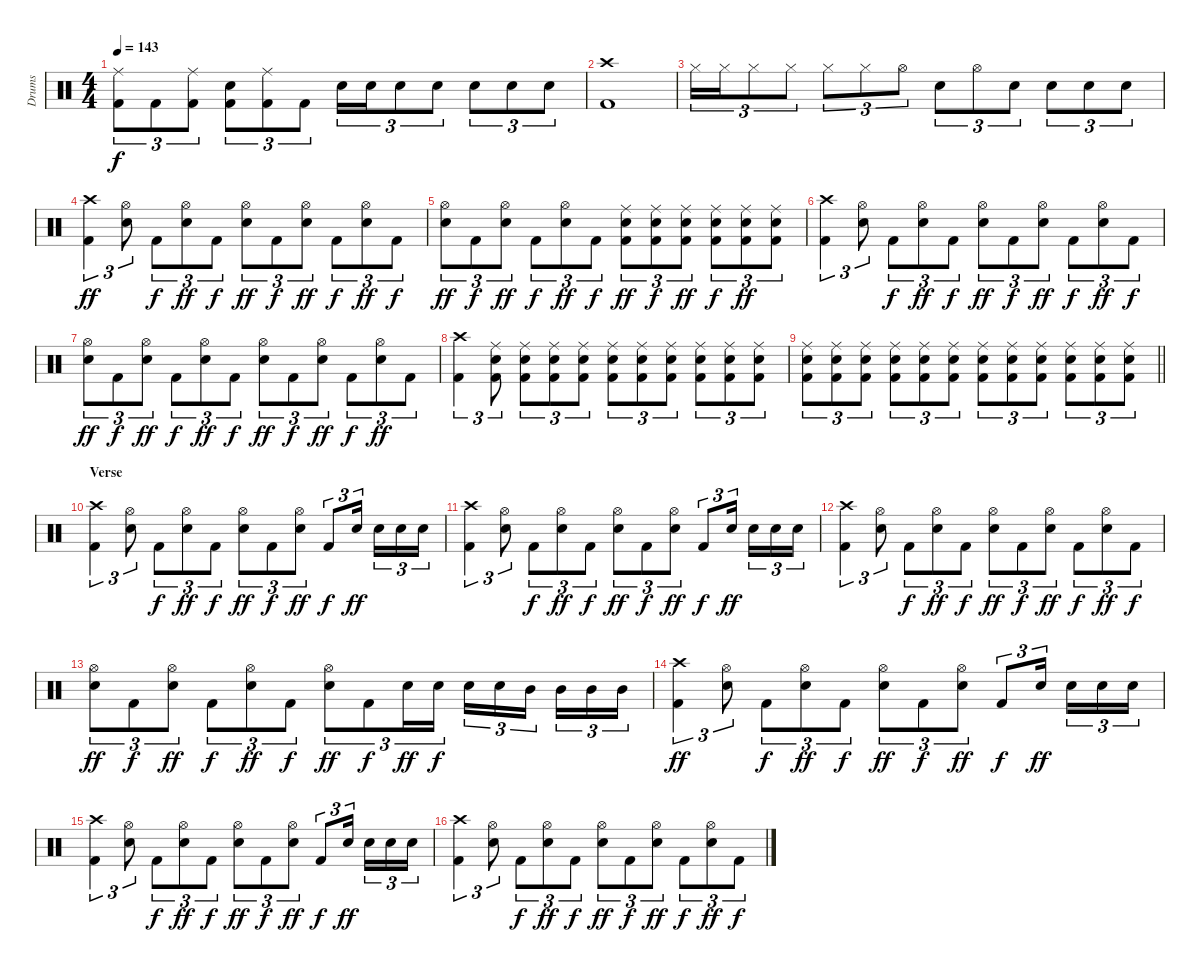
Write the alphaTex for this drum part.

\track ("Drums" "Drums") {instrument percussion}
\staff {score}
\articulation defaults
\ts (4 4)
\tempo 143
\clef neutral
\ks c
("Ride (middle)" "Kick (hit) 2").8{tu (3 2) dy f} "Kick (hit) 2".8{tu (3 2)} ("Ride (middle)" "Kick (hit) 2").8{tu (3 2)} ("Snare (hit) 2" "Kick (hit) 2").8{tu (3 2)} ("Ride (middle)" "Kick (hit) 2").8{tu (3 2)} "Kick (hit) 2".8{tu (3 2)} "Snare (hit) 2".16{tu (3 2)} "Snare (hit) 2".16{tu (3 2)} "Snare (hit) 2".8{tu (3 2)} "Snare (hit) 2".8{tu (3 2)} "Snare (hit) 2".8{tu (3 2)} "Snare (hit) 2".8{tu (3 2)} "Snare (hit) 2".8{tu (3 2)} |
("Crash high (hit)" "Kick (hit) 2").1 |
"Hi-Hat (closed)".16{tu (3 2)} "Hi-Hat (closed)".16{tu (3 2)} "Hi-Hat (closed)".8{tu (3 2)} "Hi-Hat (closed)".8{tu (3 2)} "Hi-Hat (closed)".8{tu (3 2)} "Hi-Hat (closed)".8{tu (3 2)} "Hi-Hat (open)".8{tu (3 2)} "Snare (hit) 2".8{tu (3 2)} "Hi-Hat (open)".8{tu (3 2)} "Snare (hit) 2".8{tu (3 2)} "Snare (hit) 2".8{tu (3 2)} "Snare (hit) 2".8{tu (3 2)} "Snare (hit) 2".8{tu (3 2)} |
("Crash high (hit)" "Kick (hit) 2").4{tu (3 2) dy ff} ("Hi-Hat (open)" "Snare (hit) 2").8{tu (3 2)} "Kick (hit) 2".8{tu (3 2) dy f} ("Hi-Hat (open)" "Snare (hit) 2").8{tu (3 2) dy ff} "Kick (hit) 2".8{tu (3 2) dy f} ("Hi-Hat (open)" "Snare (hit) 2").8{tu (3 2) dy ff} "Kick (hit) 2".8{tu (3 2) dy f} ("Hi-Hat (open)" "Snare (hit) 2").8{tu (3 2) dy ff} "Kick (hit) 2".8{tu (3 2) dy f} ("Hi-Hat (open)" "Snare (hit) 2").8{tu (3 2) dy ff} "Kick (hit) 2".8{tu (3 2) dy f} |
("Hi-Hat (open)" "Snare (hit) 2").8{tu (3 2) dy ff} "Kick (hit) 2".8{tu (3 2) dy f} ("Hi-Hat (open)" "Snare (hit) 2").8{tu (3 2) dy ff} "Kick (hit) 2".8{tu (3 2) dy f} ("Hi-Hat (open)" "Snare (hit) 2").8{tu (3 2) dy ff} "Kick (hit) 2".8{tu (3 2) dy f} ("Ride (middle)" "Snare (hit) 2" "Kick (hit) 2").8{tu (3 2) dy ff} ("Ride (middle)" "Snare (hit) 2" "Kick (hit) 2").8{tu (3 2) dy f} ("Ride (middle)" "Snare (hit) 2" "Kick (hit) 2").8{tu (3 2) dy ff} ("Ride (middle)" "Snare (hit) 2" "Kick (hit) 2").8{tu (3 2) dy f} ("Ride (middle)" "Snare (hit) 2" "Kick (hit) 2").8{tu (3 2) dy ff} ("Ride (middle)" "Snare (hit) 2" "Kick (hit) 2").8{tu (3 2)} |
("Crash high (hit)" "Kick (hit) 2").4{tu (3 2)} ("Hi-Hat (open)" "Snare (hit) 2").8{tu (3 2)} "Kick (hit) 2".8{tu (3 2) dy f} ("Hi-Hat (open)" "Snare (hit) 2").8{tu (3 2) dy ff} "Kick (hit) 2".8{tu (3 2) dy f} ("Hi-Hat (open)" "Snare (hit) 2").8{tu (3 2) dy ff} "Kick (hit) 2".8{tu (3 2) dy f} ("Hi-Hat (open)" "Snare (hit) 2").8{tu (3 2) dy ff} "Kick (hit) 2".8{tu (3 2) dy f} ("Hi-Hat (open)" "Snare (hit) 2").8{tu (3 2) dy ff} "Kick (hit) 2".8{tu (3 2) dy f} |
("Hi-Hat (open)" "Snare (hit) 2").8{tu (3 2) dy ff} "Kick (hit) 2".8{tu (3 2) dy f} ("Hi-Hat (open)" "Snare (hit) 2").8{tu (3 2) dy ff} "Kick (hit) 2".8{tu (3 2) dy f} ("Hi-Hat (open)" "Snare (hit) 2").8{tu (3 2) dy ff} "Kick (hit) 2".8{tu (3 2) dy f} ("Hi-Hat (open)" "Snare (hit) 2").8{tu (3 2) dy ff} "Kick (hit) 2".8{tu (3 2) dy f} ("Hi-Hat (open)" "Snare (hit) 2").8{tu (3 2) dy ff} "Kick (hit) 2".8{tu (3 2) dy f} ("Hi-Hat (open)" "Snare (hit) 2").8{tu (3 2) dy ff} "Kick (hit) 2".8{tu (3 2)} |
("Crash high (hit)" "Kick (hit) 2").4{tu (3 2)} ("Ride (middle)" "Snare (hit) 2" "Kick (hit) 2").8{tu (3 2)} ("Ride (middle)" "Snare (hit) 2" "Kick (hit) 2").8{tu (3 2)} ("Ride (middle)" "Snare (hit) 2" "Kick (hit) 2").8{tu (3 2)} ("Ride (middle)" "Snare (hit) 2" "Kick (hit) 2").8{tu (3 2)} ("Ride (middle)" "Snare (hit) 2" "Kick (hit) 2").8{tu (3 2)} ("Ride (middle)" "Snare (hit) 2" "Kick (hit) 2").8{tu (3 2)} ("Ride (middle)" "Snare (hit) 2" "Kick (hit) 2").8{tu (3 2)} ("Ride (middle)" "Snare (hit) 2" "Kick (hit) 2").8{tu (3 2)} ("Ride (middle)" "Snare (hit) 2" "Kick (hit) 2").8{tu (3 2)} ("Ride (middle)" "Snare (hit) 2" "Kick (hit) 2").8{tu (3 2)} |
\barLineRight lightlight
("Ride (middle)" "Snare (hit) 2" "Kick (hit) 2").8{tu (3 2)} ("Ride (middle)" "Snare (hit) 2" "Kick (hit) 2").8{tu (3 2)} ("Ride (middle)" "Snare (hit) 2" "Kick (hit) 2").8{tu (3 2)} ("Ride (middle)" "Snare (hit) 2" "Kick (hit) 2").8{tu (3 2)} ("Ride (middle)" "Snare (hit) 2" "Kick (hit) 2").8{tu (3 2)} ("Ride (middle)" "Snare (hit) 2" "Kick (hit) 2").8{tu (3 2)} ("Ride (middle)" "Snare (hit) 2" "Kick (hit) 2").8{tu (3 2)} ("Ride (middle)" "Snare (hit) 2" "Kick (hit) 2").8{tu (3 2)} ("Ride (middle)" "Snare (hit) 2" "Kick (hit) 2").8{tu (3 2)} ("Ride (middle)" "Snare (hit) 2" "Kick (hit) 2").8{tu (3 2)} ("Ride (middle)" "Snare (hit) 2" "Kick (hit) 2").8{tu (3 2)} ("Ride (middle)" "Snare (hit) 2" "Kick (hit) 2").8{tu (3 2)} |
\section ("" "Verse")
("Crash high (hit)" "Kick (hit) 2").4{tu (3 2)} ("Hi-Hat (open)" "Snare (hit) 2").8{tu (3 2)} "Kick (hit) 2".8{tu (3 2) dy f} ("Hi-Hat (open)" "Snare (hit) 2").8{tu (3 2) dy ff} "Kick (hit) 2".8{tu (3 2) dy f} ("Hi-Hat (open)" "Snare (hit) 2").8{tu (3 2) dy ff} "Kick (hit) 2".8{tu (3 2) dy f} ("Hi-Hat (open)" "Snare (hit) 2").8{tu (3 2) dy ff} "Kick (hit) 2".8{tu (3 2) dy f} "Snare (hit) 2".16{tu (3 2) dy ff beam splitsecondary} "Snare (hit) 2".16{tu (3 2)} "Snare (hit) 2".16{tu (3 2)} "Snare (hit) 2".16{tu (3 2)} |
("Crash high (hit)" "Kick (hit) 2").4{tu (3 2)} ("Hi-Hat (open)" "Snare (hit) 2").8{tu (3 2)} "Kick (hit) 2".8{tu (3 2) dy f} ("Hi-Hat (open)" "Snare (hit) 2").8{tu (3 2) dy ff} "Kick (hit) 2".8{tu (3 2) dy f} ("Hi-Hat (open)" "Snare (hit) 2").8{tu (3 2) dy ff} "Kick (hit) 2".8{tu (3 2) dy f} ("Hi-Hat (open)" "Snare (hit) 2").8{tu (3 2) dy ff} "Kick (hit) 2".8{tu (3 2) dy f} "Snare (hit) 2".16{tu (3 2) dy ff beam splitsecondary} "Snare (hit) 2".16{tu (3 2)} "Snare (hit) 2".16{tu (3 2)} "Snare (hit) 2".16{tu (3 2)} |
("Crash high (hit)" "Kick (hit) 2").4{tu (3 2)} ("Hi-Hat (open)" "Snare (hit) 2").8{tu (3 2)} "Kick (hit) 2".8{tu (3 2) dy f} ("Hi-Hat (open)" "Snare (hit) 2").8{tu (3 2) dy ff} "Kick (hit) 2".8{tu (3 2) dy f} ("Hi-Hat (open)" "Snare (hit) 2").8{tu (3 2) dy ff} "Kick (hit) 2".8{tu (3 2) dy f} ("Hi-Hat (open)" "Snare (hit) 2").8{tu (3 2) dy ff} "Kick (hit) 2".8{tu (3 2) dy f} ("Hi-Hat (open)" "Snare (hit) 2").8{tu (3 2) dy ff} "Kick (hit) 2".8{tu (3 2) dy f} |
("Hi-Hat (open)" "Snare (hit) 2").8{tu (3 2) dy ff} "Kick (hit) 2".8{tu (3 2) dy f} ("Hi-Hat (open)" "Snare (hit) 2").8{tu (3 2) dy ff} "Kick (hit) 2".8{tu (3 2) dy f} ("Hi-Hat (open)" "Snare (hit) 2").8{tu (3 2) dy ff} "Kick (hit) 2".8{tu (3 2) dy f} ("Hi-Hat (open)" "Snare (hit) 2").8{tu (3 2) dy ff} "Kick (hit) 2".8{tu (3 2) dy f} "Snare (hit) 2".16{tu (3 2) dy ff} "Snare (hit) 2".16{tu (3 2) dy f} "Snare (hit) 2".16{tu (3 2)} "Snare (hit) 2".16{tu (3 2)} "Mid Tom (hit)".16{tu (3 2) beam splitsecondary} "Mid Tom (hit)".16{tu (3 2)} "Mid Tom (hit)".16{tu (3 2)} "Mid Tom (hit)".16{tu (3 2)} |
("Crash high (hit)" "Kick (hit) 2").4{tu (3 2) dy ff} ("Hi-Hat (open)" "Snare (hit) 2").8{tu (3 2)} "Kick (hit) 2".8{tu (3 2) dy f} ("Hi-Hat (open)" "Snare (hit) 2").8{tu (3 2) dy ff} "Kick (hit) 2".8{tu (3 2) dy f} ("Hi-Hat (open)" "Snare (hit) 2").8{tu (3 2) dy ff} "Kick (hit) 2".8{tu (3 2) dy f} ("Hi-Hat (open)" "Snare (hit) 2").8{tu (3 2) dy ff} "Kick (hit) 2".8{tu (3 2) dy f} "Snare (hit) 2".16{tu (3 2) dy ff beam splitsecondary} "Snare (hit) 2".16{tu (3 2)} "Snare (hit) 2".16{tu (3 2)} "Snare (hit) 2".16{tu (3 2)} |
("Crash high (hit)" "Kick (hit) 2").4{tu (3 2)} ("Hi-Hat (open)" "Snare (hit) 2").8{tu (3 2)} "Kick (hit) 2".8{tu (3 2) dy f} ("Hi-Hat (open)" "Snare (hit) 2").8{tu (3 2) dy ff} "Kick (hit) 2".8{tu (3 2) dy f} ("Hi-Hat (open)" "Snare (hit) 2").8{tu (3 2) dy ff} "Kick (hit) 2".8{tu (3 2) dy f} ("Hi-Hat (open)" "Snare (hit) 2").8{tu (3 2) dy ff} "Kick (hit) 2".8{tu (3 2) dy f} "Snare (hit) 2".16{tu (3 2) dy ff beam splitsecondary} "Snare (hit) 2".16{tu (3 2)} "Snare (hit) 2".16{tu (3 2)} "Snare (hit) 2".16{tu (3 2)} |
("Crash high (hit)" "Kick (hit) 2").4{tu (3 2)} ("Hi-Hat (open)" "Snare (hit) 2").8{tu (3 2)} "Kick (hit) 2".8{tu (3 2) dy f} ("Hi-Hat (open)" "Snare (hit) 2").8{tu (3 2) dy ff} "Kick (hit) 2".8{tu (3 2) dy f} ("Hi-Hat (open)" "Snare (hit) 2").8{tu (3 2) dy ff} "Kick (hit) 2".8{tu (3 2) dy f} ("Hi-Hat (open)" "Snare (hit) 2").8{tu (3 2) dy ff} "Kick (hit) 2".8{tu (3 2) dy f} ("Hi-Hat (open)" "Snare (hit) 2").8{tu (3 2) dy ff} "Kick (hit) 2".8{tu (3 2) dy f}
